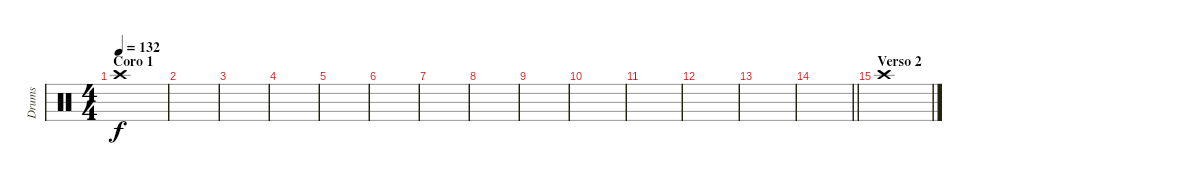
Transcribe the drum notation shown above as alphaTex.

\track ("Drums" "Drums") {instrument percussion}
\staff {score}
\articulation defaults
\ts (4 4)
\section ("" "Coro 1")
\tempo 132
\clef neutral
\ks c "Crash high (hit)".1{dy f}
|
|
|
|
|
|
|
|
|
|
|
|
|
\barLineRight lightlight
|
\section ("" "Verso 2")
"Crash high (hit)".1
